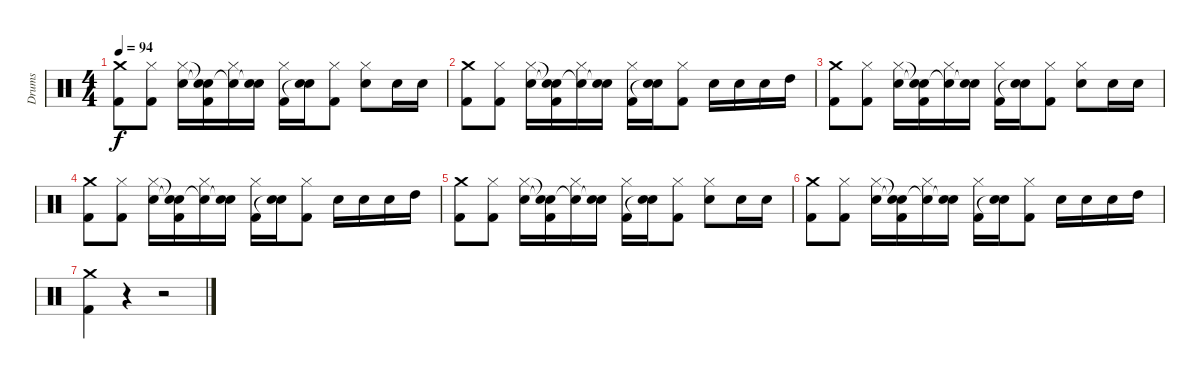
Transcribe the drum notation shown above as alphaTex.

\track ("Drums" "Drums") {instrument percussion}
\staff {score}
\articulation defaults
\ts (4 4)
\tempo 94
\clef neutral
\ks c
("Crash medium (hit)" "Kick (hit) 2").8{dy f} ("Hi-Hat (closed)" "Kick (hit) 2").8 ("Hi-Hat (closed)" "Electric Snare (hit)").16 ("Snare (hit)"{t} "Snare (hit)"{t} "Kick (hit) 2").16 ("Hi-Hat (closed)" "Snare (hit)"{t}).16 ("Electric Snare (hit)" "Snare (hit)"{t}).16 ("Hi-Hat (closed)" "Kick (hit) 2").16 ("Electric Snare (hit)" "Snare (hit)"{t}).16 ("Hi-Hat (closed)" "Kick (hit) 2").8 ("Hi-Hat (closed)" "Electric Snare (hit)").8 "Electric Snare (hit)".16 "Electric Snare (hit)".16 |
("Crash medium (hit)" "Kick (hit) 2").8 ("Hi-Hat (closed)" "Kick (hit) 2").8 ("Hi-Hat (closed)" "Electric Snare (hit)").16 ("Snare (hit)"{t} "Snare (hit)"{t} "Kick (hit) 2").16 ("Hi-Hat (closed)" "Snare (hit)"{t}).16 ("Electric Snare (hit)" "Snare (hit)"{t}).16 ("Hi-Hat (closed)" "Kick (hit) 2").16 ("Electric Snare (hit)" "Snare (hit)"{t}).16 ("Hi-Hat (closed)" "Kick (hit) 2").8 "Electric Snare (hit)".16 "Electric Snare (hit)".16 "Electric Snare (hit)".16 "High Tom (hit)".16 |
("Crash medium (hit)" "Kick (hit) 2").8 ("Hi-Hat (closed)" "Kick (hit) 2").8 ("Hi-Hat (closed)" "Electric Snare (hit)").16 ("Snare (hit)"{t} "Snare (hit)"{t} "Kick (hit) 2").16 ("Hi-Hat (closed)" "Snare (hit)"{t}).16 ("Electric Snare (hit)" "Snare (hit)"{t}).16 ("Hi-Hat (closed)" "Kick (hit) 2").16 ("Electric Snare (hit)" "Snare (hit)"{t}).16 ("Hi-Hat (closed)" "Kick (hit) 2").8 ("Hi-Hat (closed)" "Electric Snare (hit)").8 "Electric Snare (hit)".16 "Electric Snare (hit)".16 |
("Crash medium (hit)" "Kick (hit) 2").8 ("Hi-Hat (closed)" "Kick (hit) 2").8 ("Hi-Hat (closed)" "Electric Snare (hit)").16 ("Snare (hit)"{t} "Snare (hit)"{t} "Kick (hit) 2").16 ("Hi-Hat (closed)" "Snare (hit)"{t}).16 ("Electric Snare (hit)" "Snare (hit)"{t}).16 ("Hi-Hat (closed)" "Kick (hit) 2").16 ("Electric Snare (hit)" "Snare (hit)"{t}).16 ("Hi-Hat (closed)" "Kick (hit) 2").8 "Electric Snare (hit)".16 "Electric Snare (hit)".16 "Electric Snare (hit)".16 "High Tom (hit)".16 |
("Crash medium (hit)" "Kick (hit) 2").8 ("Hi-Hat (closed)" "Kick (hit) 2").8 ("Hi-Hat (closed)" "Electric Snare (hit)").16 ("Snare (hit)"{t} "Snare (hit)"{t} "Kick (hit) 2").16 ("Hi-Hat (closed)" "Snare (hit)"{t}).16 ("Electric Snare (hit)" "Snare (hit)"{t}).16 ("Hi-Hat (closed)" "Kick (hit) 2").16 ("Electric Snare (hit)" "Snare (hit)"{t}).16 ("Hi-Hat (closed)" "Kick (hit) 2").8 ("Hi-Hat (closed)" "Electric Snare (hit)").8 "Electric Snare (hit)".16 "Electric Snare (hit)".16 |
("Crash medium (hit)" "Kick (hit) 2").8 ("Hi-Hat (closed)" "Kick (hit) 2").8 ("Hi-Hat (closed)" "Electric Snare (hit)").16 ("Snare (hit)"{t} "Snare (hit)"{t} "Kick (hit) 2").16 ("Hi-Hat (closed)" "Snare (hit)"{t}).16 ("Electric Snare (hit)" "Snare (hit)"{t}).16 ("Hi-Hat (closed)" "Kick (hit) 2").16 ("Electric Snare (hit)" "Snare (hit)"{t}).16 ("Hi-Hat (closed)" "Kick (hit) 2").8 "Electric Snare (hit)".16 "Electric Snare (hit)".16 "Electric Snare (hit)".16 "High Tom (hit)".16 |
("Crash medium (hit)" "Kick (hit) 2").4 r.4 r.2
